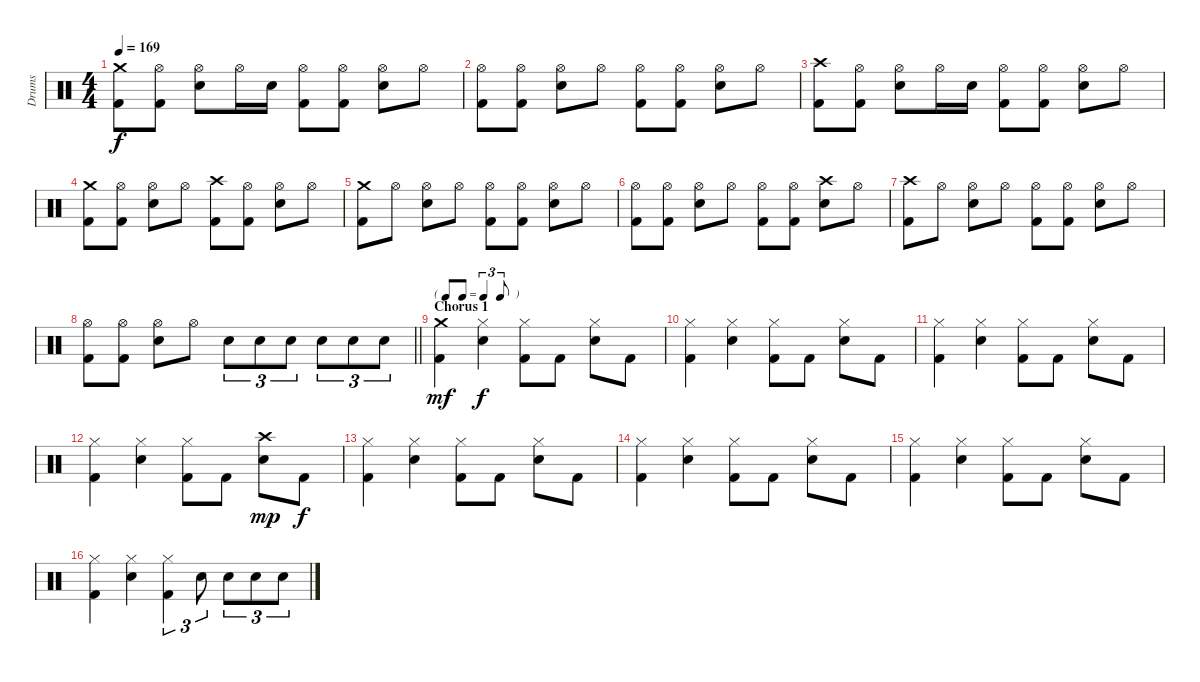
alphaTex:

\track ("Drums" "Drums") {instrument percussion}
\staff {score}
\articulation defaults
\ts (4 4)
\tempo 169
\clef neutral
\ks c
("Crash medium (hit)" "Kick (hit) 2").8{dy f} ("Hi-Hat (open)" "Kick (hit) 2").8 ("Hi-Hat (open)" "Snare (hit) 2").8 "Hi-Hat (open)".16 "Snare (hit) 2".16 ("Hi-Hat (open)" "Kick (hit) 2").8 ("Hi-Hat (open)" "Kick (hit) 2").8 ("Hi-Hat (open)" "Snare (hit) 2").8 "Hi-Hat (open)".8 |
("Hi-Hat (open)" "Kick (hit) 2").8 ("Hi-Hat (open)" "Kick (hit) 2").8 ("Hi-Hat (open)" "Snare (hit) 2").8 "Hi-Hat (open)".8 ("Hi-Hat (open)" "Kick (hit) 2").8 ("Hi-Hat (open)" "Kick (hit) 2").8 ("Hi-Hat (open)" "Snare (hit) 2").8 "Hi-Hat (open)".8 |
("Crash high (hit)" "Kick (hit) 2").8 ("Hi-Hat (open)" "Kick (hit) 2").8 ("Hi-Hat (open)" "Snare (hit) 2").8 "Hi-Hat (open)".16 "Snare (hit) 2".16 ("Hi-Hat (open)" "Kick (hit) 2").8 ("Hi-Hat (open)" "Kick (hit) 2").8 ("Hi-Hat (open)" "Snare (hit) 2").8 "Hi-Hat (open)".8 |
("Crash medium (hit)" "Kick (hit) 2").8 ("Hi-Hat (open)" "Kick (hit) 2").8 ("Hi-Hat (open)" "Snare (hit) 2").8 "Hi-Hat (open)".8 ("Crash high (hit)" "Kick (hit) 2").8 ("Hi-Hat (open)" "Kick (hit) 2").8 ("Hi-Hat (open)" "Snare (hit) 2").8 "Hi-Hat (open)".8 |
("Crash medium (hit)" "Kick (hit) 2").8 "Hi-Hat (open)".8 ("Hi-Hat (open)" "Snare (hit) 2").8 "Hi-Hat (open)".8 ("Hi-Hat (open)" "Kick (hit) 2").8 ("Hi-Hat (open)" "Kick (hit) 2").8 ("Hi-Hat (open)" "Snare (hit) 2").8 "Hi-Hat (open)".8 |
("Hi-Hat (open)" "Kick (hit) 2").8 ("Hi-Hat (open)" "Kick (hit) 2").8 ("Hi-Hat (open)" "Snare (hit) 2").8 "Hi-Hat (open)".8 ("Hi-Hat (open)" "Kick (hit) 2").8 ("Hi-Hat (open)" "Kick (hit) 2").8 ("Crash high (hit)" "Snare (hit) 2").8 "Hi-Hat (open)".8 |
("Crash high (hit)" "Kick (hit) 2").8 "Hi-Hat (open)".8 ("Hi-Hat (open)" "Snare (hit) 2").8 "Hi-Hat (open)".8 ("Hi-Hat (open)" "Kick (hit) 2").8 ("Hi-Hat (open)" "Kick (hit) 2").8 ("Hi-Hat (open)" "Snare (hit) 2").8 "Hi-Hat (open)".8 |
\barLineRight lightlight
("Hi-Hat (open)" "Kick (hit) 2").8 ("Hi-Hat (open)" "Kick (hit) 2").8 ("Hi-Hat (open)" "Snare (hit) 2").8 "Hi-Hat (open)".8 "Snare (hit) 2".8{tu (3 2)} "Snare (hit) 2".8{tu (3 2)} "Snare (hit) 2".8{tu (3 2)} "Snare (hit) 2".8{tu (3 2)} "Snare (hit) 2".8{tu (3 2)} "Snare (hit) 2".8{tu (3 2)} |
\tf triplet8th
\section ("" "Chorus 1")
("Crash medium (hit)" "Kick (hit) 2").4{dy mf} ("Hi-Hat (closed)" "Snare (hit) 2").4{dy f} ("Hi-Hat (closed)" "Kick (hit) 2").8 "Kick (hit) 2".8 ("Hi-Hat (closed)" "Snare (hit) 2").8 "Kick (hit) 2".8 |
("Hi-Hat (closed)" "Kick (hit) 2").4 ("Hi-Hat (closed)" "Snare (hit) 2").4 ("Hi-Hat (closed)" "Kick (hit) 2").8 "Kick (hit) 2".8 ("Hi-Hat (closed)" "Snare (hit) 2").8 "Kick (hit) 2".8 |
("Hi-Hat (closed)" "Kick (hit) 2").4 ("Hi-Hat (closed)" "Snare (hit) 2").4 ("Hi-Hat (closed)" "Kick (hit) 2").8 "Kick (hit) 2".8 ("Hi-Hat (closed)" "Snare (hit) 2").8 "Kick (hit) 2".8 |
("Hi-Hat (closed)" "Kick (hit) 2").4 ("Hi-Hat (closed)" "Snare (hit) 2").4 ("Hi-Hat (closed)" "Kick (hit) 2").8 "Kick (hit) 2".8 ("Crash high (hit)" "Snare (hit) 2").8{dy mp} "Kick (hit) 2".8{dy f} |
("Hi-Hat (closed)" "Kick (hit) 2").4 ("Hi-Hat (closed)" "Snare (hit) 2").4 ("Hi-Hat (closed)" "Kick (hit) 2").8 "Kick (hit) 2".8 ("Hi-Hat (closed)" "Snare (hit) 2").8 "Kick (hit) 2".8 |
("Hi-Hat (closed)" "Kick (hit) 2").4 ("Hi-Hat (closed)" "Snare (hit) 2").4 ("Hi-Hat (closed)" "Kick (hit) 2").8 "Kick (hit) 2".8 ("Hi-Hat (closed)" "Snare (hit) 2").8 "Kick (hit) 2".8 |
("Hi-Hat (closed)" "Kick (hit) 2").4 ("Hi-Hat (closed)" "Snare (hit) 2").4 ("Hi-Hat (closed)" "Kick (hit) 2").8 "Kick (hit) 2".8 ("Hi-Hat (closed)" "Snare (hit) 2").8 "Kick (hit) 2".8 |
("Hi-Hat (closed)" "Kick (hit) 2").4 ("Hi-Hat (closed)" "Snare (hit) 2").4 ("Hi-Hat (closed)" "Kick (hit) 2").4{tu (3 2)} "Snare (hit) 2".8{tu (3 2)} "Snare (hit) 2".8{tu (3 2)} "Snare (hit) 2".8{tu (3 2)} "Snare (hit) 2".8{tu (3 2)}
